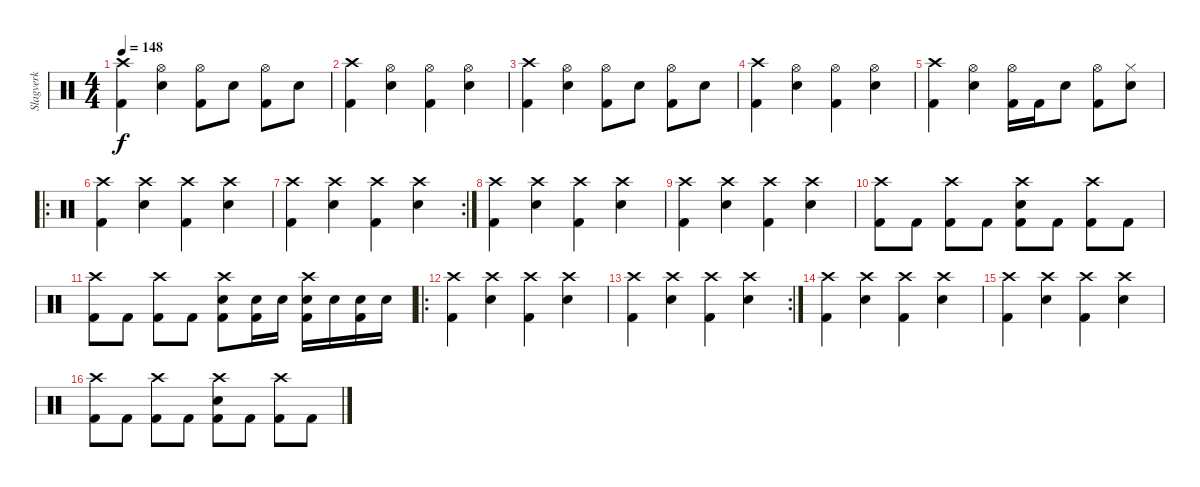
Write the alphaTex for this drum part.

\track ("Slagverk" "Slagverk") {instrument percussion}
\staff {score}
\articulation defaults
\ts (4 4)
\tempo 148
\clef neutral
\ks c
("Crash high (hit)" "Kick (hit) 2").4{dy f} ("Hi-Hat (open)" "Electric Snare (hit)").4 ("Hi-Hat (open)" "Kick (hit) 2").8 "Electric Snare (hit)".8 ("Hi-Hat (open)" "Kick (hit) 2").8 "Electric Snare (hit)".8 |
("Crash high (hit)" "Kick (hit) 2").4 ("Hi-Hat (open)" "Electric Snare (hit)").4 ("Hi-Hat (open)" "Kick (hit) 2").4 ("Hi-Hat (open)" "Electric Snare (hit)").4 |
("Crash high (hit)" "Kick (hit) 2").4 ("Hi-Hat (open)" "Electric Snare (hit)").4 ("Hi-Hat (open)" "Kick (hit) 2").8 "Electric Snare (hit)".8 ("Hi-Hat (open)" "Kick (hit) 2").8 "Electric Snare (hit)".8 |
("Crash high (hit)" "Kick (hit) 2").4 ("Hi-Hat (open)" "Electric Snare (hit)").4 ("Hi-Hat (open)" "Kick (hit) 2").4 ("Hi-Hat (open)" "Electric Snare (hit)").4 |
("Crash high (hit)" "Kick (hit) 2").4 ("Hi-Hat (open)" "Electric Snare (hit)").4 ("Hi-Hat (open)" "Kick (hit) 2").16 "Kick (hit) 2".16 "Electric Snare (hit)".8 ("Hi-Hat (open)" "Kick (hit) 2").8 ("Hi-Hat (closed)" "Electric Snare (hit)").8 |
\ro
("Crash high (hit)" "Kick (hit) 2").4 ("Crash high (hit)" "Electric Snare (hit)").4 ("Crash high (hit)" "Kick (hit) 2").4 ("Crash high (hit)" "Electric Snare (hit)").4 |
\rc 2
("Crash high (hit)" "Kick (hit) 2").4 ("Crash high (hit)" "Electric Snare (hit)").4 ("Crash high (hit)" "Kick (hit) 2").4 ("Crash high (hit)" "Electric Snare (hit)").4 |
("Crash high (hit)" "Kick (hit) 2").4 ("Crash high (hit)" "Electric Snare (hit)").4 ("Crash high (hit)" "Kick (hit) 2").4 ("Crash high (hit)" "Electric Snare (hit)").4 |
("Crash high (hit)" "Kick (hit) 2").4 ("Crash high (hit)" "Electric Snare (hit)").4 ("Crash high (hit)" "Kick (hit) 2").4 ("Crash high (hit)" "Electric Snare (hit)").4 |
("Crash high (hit)" "Kick (hit) 2").8 "Kick (hit) 2".8 ("Crash high (hit)" "Kick (hit) 2").8 "Kick (hit) 2".8 ("Crash high (hit)" "Electric Snare (hit)" "Kick (hit) 2").8 "Kick (hit) 2".8 ("Crash high (hit)" "Kick (hit) 2").8 "Kick (hit) 2".8 |
("Crash high (hit)" "Kick (hit) 2").8 "Kick (hit) 2".8 ("Crash high (hit)" "Kick (hit) 2").8 "Kick (hit) 2".8 ("Crash high (hit)" "Electric Snare (hit)" "Kick (hit) 2").8 ("Electric Snare (hit)" "Kick (hit) 2").16 "Electric Snare (hit)".16 ("Crash high (hit)" "Electric Snare (hit)" "Kick (hit) 2").16 "Electric Snare (hit)".16 ("Electric Snare (hit)" "Kick (hit) 2").16 "Electric Snare (hit)".16 |
\ro
("Crash high (hit)" "Kick (hit) 2").4 ("Crash high (hit)" "Electric Snare (hit)").4 ("Crash high (hit)" "Kick (hit) 2").4 ("Crash high (hit)" "Electric Snare (hit)").4 |
\rc 2
("Crash high (hit)" "Kick (hit) 2").4 ("Crash high (hit)" "Electric Snare (hit)").4 ("Crash high (hit)" "Kick (hit) 2").4 ("Crash high (hit)" "Electric Snare (hit)").4 |
("Crash high (hit)" "Kick (hit) 2").4 ("Crash high (hit)" "Electric Snare (hit)").4 ("Crash high (hit)" "Kick (hit) 2").4 ("Crash high (hit)" "Electric Snare (hit)").4 |
("Crash high (hit)" "Kick (hit) 2").4 ("Crash high (hit)" "Electric Snare (hit)").4 ("Crash high (hit)" "Kick (hit) 2").4 ("Crash high (hit)" "Electric Snare (hit)").4 |
("Crash high (hit)" "Kick (hit) 2").8 "Kick (hit) 2".8 ("Crash high (hit)" "Kick (hit) 2").8 "Kick (hit) 2".8 ("Crash high (hit)" "Electric Snare (hit)" "Kick (hit) 2").8 "Kick (hit) 2".8 ("Crash high (hit)" "Kick (hit) 2").8 "Kick (hit) 2".8
